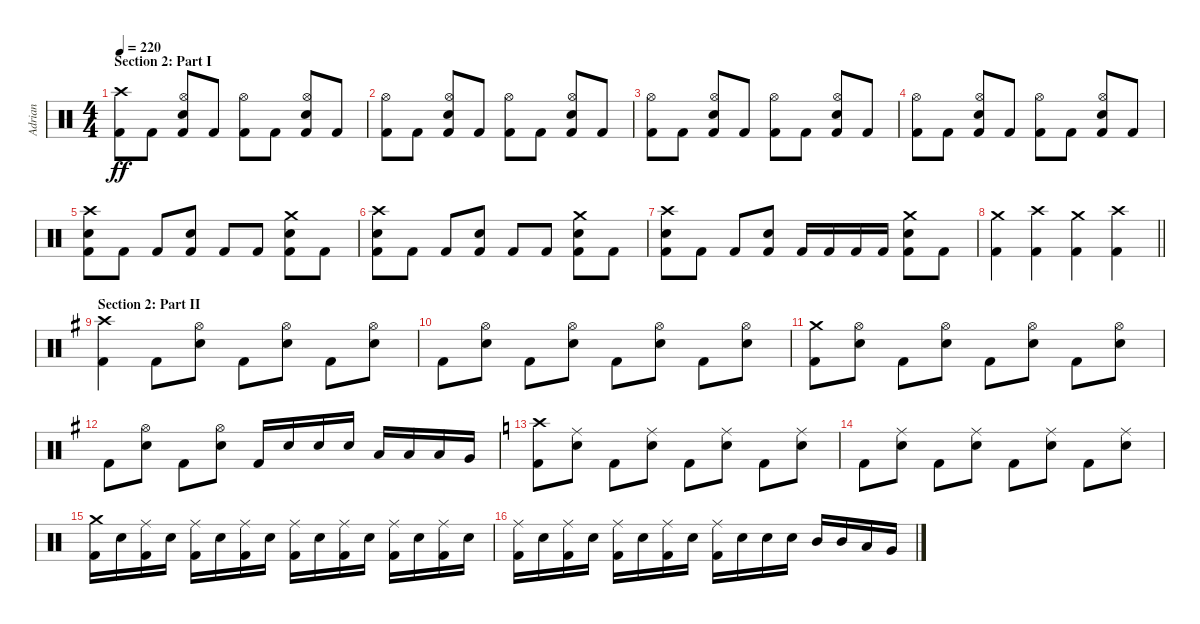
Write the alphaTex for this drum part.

\track ("Adrian" "Adrian") {instrument percussion}
\staff {score}
\articulation defaults
\ts (4 4)
\section ("" "Section 2: Part I")
\tempo 220
\clef neutral
\ks c
("Crash high (hit)" "Kick (hit) 2").8{dy ff} "Kick (hit) 2".8 ("Hi-Hat (open)" "Electric Snare (hit)" "Kick (hit) 2").8 "Kick (hit) 2".8 ("Hi-Hat (open)" "Kick (hit) 2").8 "Kick (hit) 2".8 ("Hi-Hat (open)" "Electric Snare (hit)" "Kick (hit) 2").8 "Kick (hit) 2".8 |
("Hi-Hat (open)" "Kick (hit) 2").8 "Kick (hit) 2".8 ("Hi-Hat (open)" "Electric Snare (hit)" "Kick (hit) 2").8 "Kick (hit) 2".8 ("Hi-Hat (open)" "Kick (hit) 2").8 "Kick (hit) 2".8 ("Hi-Hat (open)" "Electric Snare (hit)" "Kick (hit) 2").8 "Kick (hit) 2".8 |
("Hi-Hat (open)" "Kick (hit) 2").8 "Kick (hit) 2".8 ("Hi-Hat (open)" "Electric Snare (hit)" "Kick (hit) 2").8 "Kick (hit) 2".8 ("Hi-Hat (open)" "Kick (hit) 2").8 "Kick (hit) 2".8 ("Hi-Hat (open)" "Electric Snare (hit)" "Kick (hit) 2").8 "Kick (hit) 2".8 |
("Hi-Hat (open)" "Kick (hit) 2").8 "Kick (hit) 2".8 ("Hi-Hat (open)" "Electric Snare (hit)" "Kick (hit) 2").8 "Kick (hit) 2".8 ("Hi-Hat (open)" "Kick (hit) 2").8 "Kick (hit) 2".8 ("Hi-Hat (open)" "Electric Snare (hit)" "Kick (hit) 2").8 "Kick (hit) 2".8 |
("Crash high (hit)" "Electric Snare (hit)" "Kick (hit) 2").8 "Kick (hit) 2".8 "Kick (hit) 2".8 ("Electric Snare (hit)" "Kick (hit) 2").8 "Kick (hit) 2".8 "Kick (hit) 2".8 ("Crash medium (hit)" "Electric Snare (hit)" "Kick (hit) 2").8 "Kick (hit) 2".8 |
("Crash high (hit)" "Electric Snare (hit)" "Kick (hit) 2").8 "Kick (hit) 2".8 "Kick (hit) 2".8 ("Electric Snare (hit)" "Kick (hit) 2").8 "Kick (hit) 2".8 "Kick (hit) 2".8 ("Crash medium (hit)" "Electric Snare (hit)" "Kick (hit) 2").8 "Kick (hit) 2".8 |
("Crash high (hit)" "Electric Snare (hit)" "Kick (hit) 2").8 "Kick (hit) 2".8 "Kick (hit) 2".8 ("Electric Snare (hit)" "Kick (hit) 2").8 "Kick (hit) 2".16 "Kick (hit) 2".16 "Kick (hit) 2".16 "Kick (hit) 2".16 ("Crash medium (hit)" "Electric Snare (hit)" "Kick (hit) 2").8 "Kick (hit) 2".8 |
\barLineRight lightlight
("Crash medium (hit)" "Kick (hit) 2").4 ("Crash high (hit)" "Kick (hit) 2").4 ("Crash medium (hit)" "Kick (hit) 2").4 ("Crash high (hit)" "Kick (hit) 2").4 |
\section ("" "Section 2: Part II")
\ks g
("Crash high (hit)" "Kick (hit) 2").4 "Kick (hit) 2".8 ("Hi-Hat (open)" "Electric Snare (hit)").8 "Kick (hit) 2".8 ("Hi-Hat (open)" "Electric Snare (hit)").8 "Kick (hit) 2".8 ("Hi-Hat (open)" "Electric Snare (hit)").8 |
"Kick (hit) 2".8 ("Hi-Hat (open)" "Electric Snare (hit)").8 "Kick (hit) 2".8 ("Hi-Hat (open)" "Electric Snare (hit)").8 "Kick (hit) 2".8 ("Hi-Hat (open)" "Electric Snare (hit)").8 "Kick (hit) 2".8 ("Hi-Hat (open)" "Electric Snare (hit)").8 |
("Crash medium (hit)" "Kick (hit) 2").8 ("Hi-Hat (open)" "Electric Snare (hit)").8 "Kick (hit) 2".8 ("Hi-Hat (open)" "Electric Snare (hit)").8 "Kick (hit) 2".8 ("Hi-Hat (open)" "Electric Snare (hit)").8 "Kick (hit) 2".8 ("Hi-Hat (open)" "Electric Snare (hit)").8 |
"Kick (hit) 2".8 ("Hi-Hat (open)" "Electric Snare (hit)").8 "Kick (hit) 2".8 ("Hi-Hat (open)" "Electric Snare (hit)").8 "Kick (hit) 2".16 "Electric Snare (hit)".16 "Electric Snare (hit)".16 "Electric Snare (hit)".16 "Low Tom (hit)".16 "Low Tom (hit)".16 "Low Tom (hit)".16 "Very Low Tom (hit)".16 |
\ks c
("Crash high (hit)" "Kick (hit) 2").8 ("Ride (middle)" "Electric Snare (hit)").8 "Kick (hit) 2".8 ("Ride (middle)" "Electric Snare (hit)").8 "Kick (hit) 2".8 ("Ride (middle)" "Electric Snare (hit)").8 "Kick (hit) 2".8 ("Ride (middle)" "Electric Snare (hit)").8 |
"Kick (hit) 2".8 ("Ride (middle)" "Electric Snare (hit)").8 "Kick (hit) 2".8 ("Ride (middle)" "Electric Snare (hit)").8 "Kick (hit) 2".8 ("Ride (middle)" "Electric Snare (hit)").8 "Kick (hit) 2".8 ("Ride (middle)" "Electric Snare (hit)").8 |
("Crash medium (hit)" "Kick (hit) 2").16 "Electric Snare (hit)".16 ("Ride (middle)" "Kick (hit) 2").16 "Electric Snare (hit)".16 ("Ride (middle)" "Kick (hit) 2").16 "Electric Snare (hit)".16 ("Ride (middle)" "Kick (hit) 2").16 "Electric Snare (hit)".16 ("Ride (middle)" "Kick (hit) 2").16 "Electric Snare (hit)".16 ("Ride (middle)" "Kick (hit) 2").16 "Electric Snare (hit)".16 ("Ride (middle)" "Kick (hit) 2").16 "Electric Snare (hit)".16 ("Ride (middle)" "Kick (hit) 2").16 "Electric Snare (hit)".16 |
("Ride (middle)" "Kick (hit) 2").16 "Electric Snare (hit)".16 ("Ride (middle)" "Kick (hit) 2").16 "Electric Snare (hit)".16 ("Ride (middle)" "Kick (hit) 2").16 "Electric Snare (hit)".16 ("Ride (middle)" "Kick (hit) 2").16 "Electric Snare (hit)".16 ("Ride (middle)" "Kick (hit) 2").16 "Electric Snare (hit)".16 "Electric Snare (hit)".16 "Electric Snare (hit)".16 "Mid Tom (hit)".16 "Mid Tom (hit)".16 "Low Tom (hit)".16 "Very Low Tom (hit)".16
